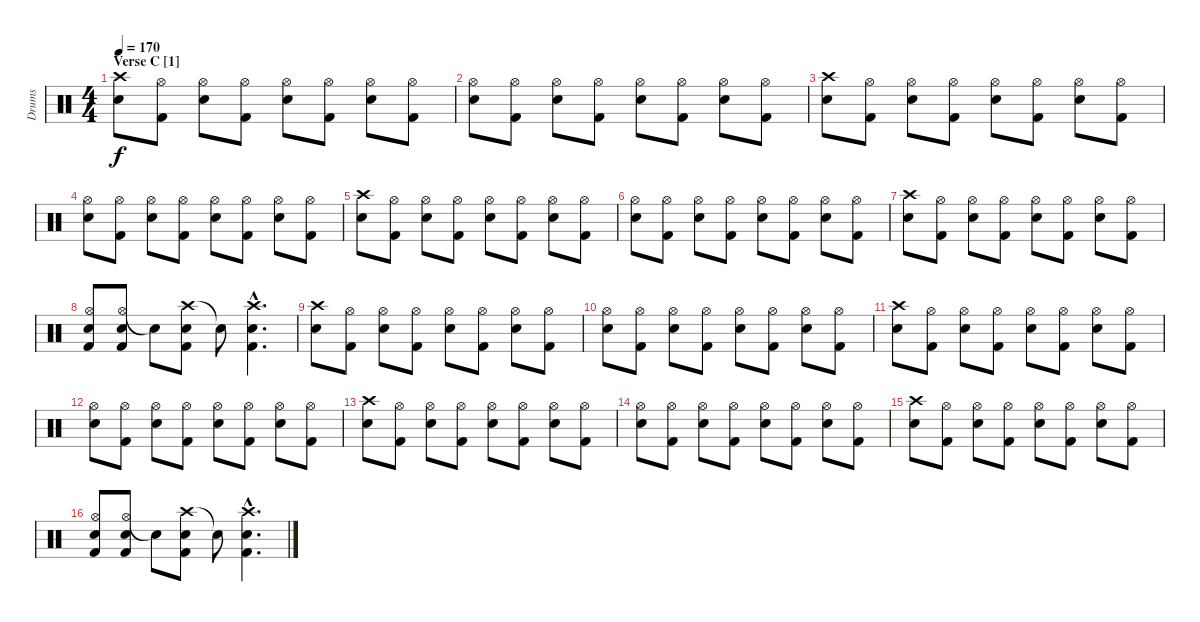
\track ("Drums" "Drums") {instrument percussion}
\staff {score}
\articulation defaults
\ts (4 4)
\section ("" "Verse C [1]")
\tempo 170
\clef neutral
\ks c
("Crash high (hit)" "Electric Snare (hit)").8{dy f} ("Hi-Hat (open)" "Kick (hit) 2").8 ("Hi-Hat (open)" "Electric Snare (hit)").8 ("Hi-Hat (open)" "Kick (hit) 2").8 ("Hi-Hat (open)" "Electric Snare (hit)").8 ("Hi-Hat (open)" "Kick (hit) 2").8 ("Hi-Hat (open)" "Electric Snare (hit)").8 ("Hi-Hat (open)" "Kick (hit) 2").8 |
("Hi-Hat (open)" "Electric Snare (hit)").8 ("Hi-Hat (open)" "Kick (hit) 2").8 ("Hi-Hat (open)" "Electric Snare (hit)").8 ("Hi-Hat (open)" "Kick (hit) 2").8 ("Hi-Hat (open)" "Electric Snare (hit)").8 ("Hi-Hat (open)" "Kick (hit) 2").8 ("Hi-Hat (open)" "Electric Snare (hit)").8 ("Hi-Hat (open)" "Kick (hit) 2").8 |
("Crash high (hit)" "Electric Snare (hit)").8 ("Hi-Hat (open)" "Kick (hit) 2").8 ("Hi-Hat (open)" "Electric Snare (hit)").8 ("Hi-Hat (open)" "Kick (hit) 2").8 ("Hi-Hat (open)" "Electric Snare (hit)").8 ("Hi-Hat (open)" "Kick (hit) 2").8 ("Hi-Hat (open)" "Electric Snare (hit)").8 ("Hi-Hat (open)" "Kick (hit) 2").8 |
("Hi-Hat (open)" "Electric Snare (hit)").8 ("Hi-Hat (open)" "Kick (hit) 2").8 ("Hi-Hat (open)" "Electric Snare (hit)").8 ("Hi-Hat (open)" "Kick (hit) 2").8 ("Hi-Hat (open)" "Electric Snare (hit)").8 ("Hi-Hat (open)" "Kick (hit) 2").8 ("Hi-Hat (open)" "Electric Snare (hit)").8 ("Hi-Hat (open)" "Kick (hit) 2").8 |
("Crash high (hit)" "Electric Snare (hit)").8 ("Hi-Hat (open)" "Kick (hit) 2").8 ("Hi-Hat (open)" "Electric Snare (hit)").8 ("Hi-Hat (open)" "Kick (hit) 2").8 ("Hi-Hat (open)" "Electric Snare (hit)").8 ("Hi-Hat (open)" "Kick (hit) 2").8 ("Hi-Hat (open)" "Electric Snare (hit)").8 ("Hi-Hat (open)" "Kick (hit) 2").8 |
("Hi-Hat (open)" "Electric Snare (hit)").8 ("Hi-Hat (open)" "Kick (hit) 2").8 ("Hi-Hat (open)" "Electric Snare (hit)").8 ("Hi-Hat (open)" "Kick (hit) 2").8 ("Hi-Hat (open)" "Electric Snare (hit)").8 ("Hi-Hat (open)" "Kick (hit) 2").8 ("Hi-Hat (open)" "Electric Snare (hit)").8 ("Hi-Hat (open)" "Kick (hit) 2").8 |
("Crash high (hit)" "Electric Snare (hit)").8 ("Hi-Hat (open)" "Kick (hit) 2").8 ("Hi-Hat (open)" "Electric Snare (hit)").8 ("Hi-Hat (open)" "Kick (hit) 2").8 ("Hi-Hat (open)" "Electric Snare (hit)").8 ("Hi-Hat (open)" "Kick (hit) 2").8 ("Hi-Hat (open)" "Electric Snare (hit)").8 ("Hi-Hat (open)" "Kick (hit) 2").8 |
("Hi-Hat (open)" "Electric Snare (hit)" "Kick (hit) 2").8 ("Hi-Hat (open)" "Electric Snare (hit)" "Kick (hit) 2").8 "Snare (hit)"{t}.8 ("Crash high (hit)" "Electric Snare (hit)" "Kick (hit) 2").8 "Snare (hit)"{t}.8 ("Crash high (hit)"{hac} "Electric Snare (hit)"{hac} "Kick (hit) 2"{hac}).4{d} |
("Crash high (hit)" "Electric Snare (hit)").8 ("Hi-Hat (open)" "Kick (hit) 2").8 ("Hi-Hat (open)" "Electric Snare (hit)").8 ("Hi-Hat (open)" "Kick (hit) 2").8 ("Hi-Hat (open)" "Electric Snare (hit)").8 ("Hi-Hat (open)" "Kick (hit) 2").8 ("Hi-Hat (open)" "Electric Snare (hit)").8 ("Hi-Hat (open)" "Kick (hit) 2").8 |
("Hi-Hat (open)" "Electric Snare (hit)").8 ("Hi-Hat (open)" "Kick (hit) 2").8 ("Hi-Hat (open)" "Electric Snare (hit)").8 ("Hi-Hat (open)" "Kick (hit) 2").8 ("Hi-Hat (open)" "Electric Snare (hit)").8 ("Hi-Hat (open)" "Kick (hit) 2").8 ("Hi-Hat (open)" "Electric Snare (hit)").8 ("Hi-Hat (open)" "Kick (hit) 2").8 |
("Crash high (hit)" "Electric Snare (hit)").8 ("Hi-Hat (open)" "Kick (hit) 2").8 ("Hi-Hat (open)" "Electric Snare (hit)").8 ("Hi-Hat (open)" "Kick (hit) 2").8 ("Hi-Hat (open)" "Electric Snare (hit)").8 ("Hi-Hat (open)" "Kick (hit) 2").8 ("Hi-Hat (open)" "Electric Snare (hit)").8 ("Hi-Hat (open)" "Kick (hit) 2").8 |
("Hi-Hat (open)" "Electric Snare (hit)").8 ("Hi-Hat (open)" "Kick (hit) 2").8 ("Hi-Hat (open)" "Electric Snare (hit)").8 ("Hi-Hat (open)" "Kick (hit) 2").8 ("Hi-Hat (open)" "Electric Snare (hit)").8 ("Hi-Hat (open)" "Kick (hit) 2").8 ("Hi-Hat (open)" "Electric Snare (hit)").8 ("Hi-Hat (open)" "Kick (hit) 2").8 |
("Crash high (hit)" "Electric Snare (hit)").8 ("Hi-Hat (open)" "Kick (hit) 2").8 ("Hi-Hat (open)" "Electric Snare (hit)").8 ("Hi-Hat (open)" "Kick (hit) 2").8 ("Hi-Hat (open)" "Electric Snare (hit)").8 ("Hi-Hat (open)" "Kick (hit) 2").8 ("Hi-Hat (open)" "Electric Snare (hit)").8 ("Hi-Hat (open)" "Kick (hit) 2").8 |
("Hi-Hat (open)" "Electric Snare (hit)").8 ("Hi-Hat (open)" "Kick (hit) 2").8 ("Hi-Hat (open)" "Electric Snare (hit)").8 ("Hi-Hat (open)" "Kick (hit) 2").8 ("Hi-Hat (open)" "Electric Snare (hit)").8 ("Hi-Hat (open)" "Kick (hit) 2").8 ("Hi-Hat (open)" "Electric Snare (hit)").8 ("Hi-Hat (open)" "Kick (hit) 2").8 |
("Crash high (hit)" "Electric Snare (hit)").8 ("Hi-Hat (open)" "Kick (hit) 2").8 ("Hi-Hat (open)" "Electric Snare (hit)").8 ("Hi-Hat (open)" "Kick (hit) 2").8 ("Hi-Hat (open)" "Electric Snare (hit)").8 ("Hi-Hat (open)" "Kick (hit) 2").8 ("Hi-Hat (open)" "Electric Snare (hit)").8 ("Hi-Hat (open)" "Kick (hit) 2").8 |
("Hi-Hat (open)" "Electric Snare (hit)" "Kick (hit) 2").8 ("Hi-Hat (open)" "Electric Snare (hit)" "Kick (hit) 2").8 "Snare (hit)"{t}.8 ("Crash high (hit)" "Electric Snare (hit)" "Kick (hit) 2").8 "Snare (hit)"{t}.8 ("Crash high (hit)"{hac} "Electric Snare (hit)"{hac} "Kick (hit) 2"{hac}).4{d}
